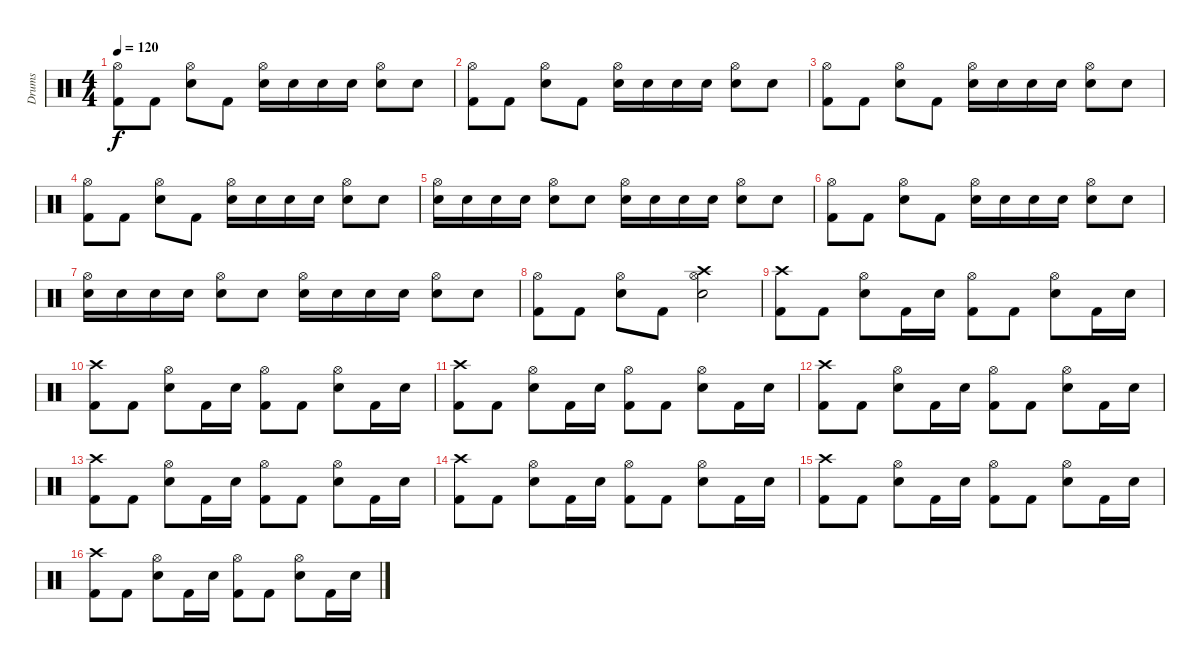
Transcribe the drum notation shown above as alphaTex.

\track ("Drums" "Drums") {instrument percussion}
\staff {score}
\articulation defaults
\ts (4 4)
\tempo 120
\clef neutral
\ks c
("Hi-Hat (open)" "Kick (hit) 2").8{dy f} "Kick (hit) 2".8 ("Hi-Hat (open)" "Electric Snare (hit)").8 "Kick (hit) 2".8 ("Hi-Hat (open)" "Electric Snare (hit)").16 "Electric Snare (hit)".16 "Electric Snare (hit)".16 "Electric Snare (hit)".16 ("Hi-Hat (open)" "Electric Snare (hit)").8 "Electric Snare (hit)".8 |
("Hi-Hat (open)" "Kick (hit) 2").8 "Kick (hit) 2".8 ("Hi-Hat (open)" "Electric Snare (hit)").8 "Kick (hit) 2".8 ("Hi-Hat (open)" "Electric Snare (hit)").16 "Electric Snare (hit)".16 "Electric Snare (hit)".16 "Electric Snare (hit)".16 ("Hi-Hat (open)" "Electric Snare (hit)").8 "Electric Snare (hit)".8 |
("Hi-Hat (open)" "Kick (hit) 2").8 "Kick (hit) 2".8 ("Hi-Hat (open)" "Electric Snare (hit)").8 "Kick (hit) 2".8 ("Hi-Hat (open)" "Electric Snare (hit)").16 "Electric Snare (hit)".16 "Electric Snare (hit)".16 "Electric Snare (hit)".16 ("Hi-Hat (open)" "Electric Snare (hit)").8 "Electric Snare (hit)".8 |
("Hi-Hat (open)" "Kick (hit) 2").8 "Kick (hit) 2".8 ("Hi-Hat (open)" "Electric Snare (hit)").8 "Kick (hit) 2".8 ("Hi-Hat (open)" "Electric Snare (hit)").16 "Electric Snare (hit)".16 "Electric Snare (hit)".16 "Electric Snare (hit)".16 ("Hi-Hat (open)" "Electric Snare (hit)").8 "Electric Snare (hit)".8 |
("Hi-Hat (open)" "Electric Snare (hit)").16 "Electric Snare (hit)".16 "Electric Snare (hit)".16 "Electric Snare (hit)".16 ("Hi-Hat (open)" "Electric Snare (hit)").8 "Electric Snare (hit)".8 ("Hi-Hat (open)" "Electric Snare (hit)").16 "Electric Snare (hit)".16 "Electric Snare (hit)".16 "Electric Snare (hit)".16 ("Hi-Hat (open)" "Electric Snare (hit)").8 "Electric Snare (hit)".8 |
("Hi-Hat (open)" "Kick (hit) 2").8 "Kick (hit) 2".8 ("Hi-Hat (open)" "Electric Snare (hit)").8 "Kick (hit) 2".8 ("Hi-Hat (open)" "Electric Snare (hit)").16 "Electric Snare (hit)".16 "Electric Snare (hit)".16 "Electric Snare (hit)".16 ("Hi-Hat (open)" "Electric Snare (hit)").8 "Electric Snare (hit)".8 |
("Hi-Hat (open)" "Electric Snare (hit)").16 "Electric Snare (hit)".16 "Electric Snare (hit)".16 "Electric Snare (hit)".16 ("Hi-Hat (open)" "Electric Snare (hit)").8 "Electric Snare (hit)".8 ("Hi-Hat (open)" "Electric Snare (hit)").16 "Electric Snare (hit)".16 "Electric Snare (hit)".16 "Electric Snare (hit)".16 ("Hi-Hat (open)" "Electric Snare (hit)").8 "Electric Snare (hit)".8 |
("Hi-Hat (open)" "Kick (hit) 2").8 "Kick (hit) 2".8 ("Hi-Hat (open)" "Electric Snare (hit)").8 "Kick (hit) 2".8 ("Hi-Hat (open)" "Electric Snare (hit)" "Crash high (hit)").2 |
("Crash high (hit)" "Kick (hit) 2").8 "Kick (hit) 2".8 ("Hi-Hat (open)" "Electric Snare (hit)").8 "Kick (hit) 2".16 "Electric Snare (hit)".16 ("Hi-Hat (open)" "Kick (hit) 2").8 "Kick (hit) 2".8 ("Hi-Hat (open)" "Electric Snare (hit)").8 "Kick (hit) 2".16 "Electric Snare (hit)".16 |
("Crash high (hit)" "Kick (hit) 2").8 "Kick (hit) 2".8 ("Hi-Hat (open)" "Electric Snare (hit)").8 "Kick (hit) 2".16 "Electric Snare (hit)".16 ("Hi-Hat (open)" "Kick (hit) 2").8 "Kick (hit) 2".8 ("Hi-Hat (open)" "Electric Snare (hit)").8 "Kick (hit) 2".16 "Electric Snare (hit)".16 |
("Crash high (hit)" "Kick (hit) 2").8 "Kick (hit) 2".8 ("Hi-Hat (open)" "Electric Snare (hit)").8 "Kick (hit) 2".16 "Electric Snare (hit)".16 ("Hi-Hat (open)" "Kick (hit) 2").8 "Kick (hit) 2".8 ("Hi-Hat (open)" "Electric Snare (hit)").8 "Kick (hit) 2".16 "Electric Snare (hit)".16 |
("Crash high (hit)" "Kick (hit) 2").8 "Kick (hit) 2".8 ("Hi-Hat (open)" "Electric Snare (hit)").8 "Kick (hit) 2".16 "Electric Snare (hit)".16 ("Hi-Hat (open)" "Kick (hit) 2").8 "Kick (hit) 2".8 ("Hi-Hat (open)" "Electric Snare (hit)").8 "Kick (hit) 2".16 "Electric Snare (hit)".16 |
("Crash high (hit)" "Kick (hit) 2").8 "Kick (hit) 2".8 ("Hi-Hat (open)" "Electric Snare (hit)").8 "Kick (hit) 2".16 "Electric Snare (hit)".16 ("Hi-Hat (open)" "Kick (hit) 2").8 "Kick (hit) 2".8 ("Hi-Hat (open)" "Electric Snare (hit)").8 "Kick (hit) 2".16 "Electric Snare (hit)".16 |
("Crash high (hit)" "Kick (hit) 2").8 "Kick (hit) 2".8 ("Hi-Hat (open)" "Electric Snare (hit)").8 "Kick (hit) 2".16 "Electric Snare (hit)".16 ("Hi-Hat (open)" "Kick (hit) 2").8 "Kick (hit) 2".8 ("Hi-Hat (open)" "Electric Snare (hit)").8 "Kick (hit) 2".16 "Electric Snare (hit)".16 |
("Crash high (hit)" "Kick (hit) 2").8 "Kick (hit) 2".8 ("Hi-Hat (open)" "Electric Snare (hit)").8 "Kick (hit) 2".16 "Electric Snare (hit)".16 ("Hi-Hat (open)" "Kick (hit) 2").8 "Kick (hit) 2".8 ("Hi-Hat (open)" "Electric Snare (hit)").8 "Kick (hit) 2".16 "Electric Snare (hit)".16 |
("Crash high (hit)" "Kick (hit) 2").8 "Kick (hit) 2".8 ("Hi-Hat (open)" "Electric Snare (hit)").8 "Kick (hit) 2".16 "Electric Snare (hit)".16 ("Hi-Hat (open)" "Kick (hit) 2").8 "Kick (hit) 2".8 ("Hi-Hat (open)" "Electric Snare (hit)").8 "Kick (hit) 2".16 "Electric Snare (hit)".16
